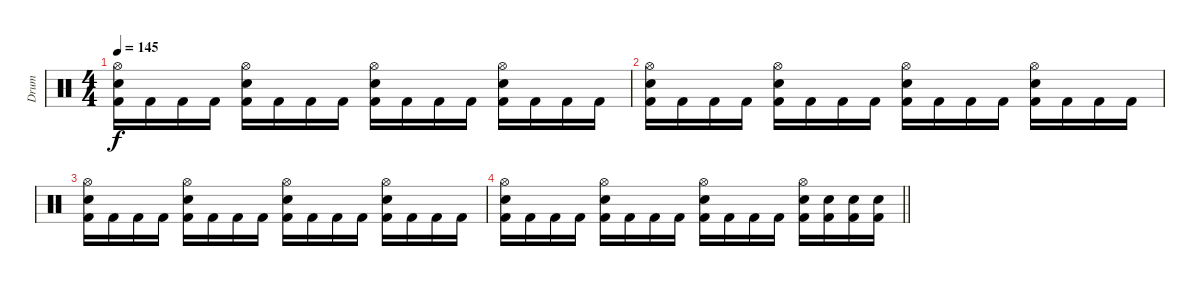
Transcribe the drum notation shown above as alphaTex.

\track ("Drum" "Drum") {instrument percussion}
\staff {score}
\articulation defaults
\ts (4 4)
\tempo 145
\clef neutral
\ks c
("Hi-Hat (open)" "Electric Snare (hit)" "Kick (hit) 2").16{dy f} "Kick (hit) 2".16 "Kick (hit) 2".16 "Kick (hit) 2".16 ("Hi-Hat (open)" "Electric Snare (hit)" "Kick (hit) 2").16 "Kick (hit) 2".16 "Kick (hit) 2".16 "Kick (hit) 2".16 ("Hi-Hat (open)" "Electric Snare (hit)" "Kick (hit) 2").16 "Kick (hit) 2".16 "Kick (hit) 2".16 "Kick (hit) 2".16 ("Hi-Hat (open)" "Electric Snare (hit)" "Kick (hit) 2").16 "Kick (hit) 2".16 "Kick (hit) 2".16 "Kick (hit) 2".16 |
("Hi-Hat (open)" "Electric Snare (hit)" "Kick (hit) 2").16 "Kick (hit) 2".16 "Kick (hit) 2".16 "Kick (hit) 2".16 ("Hi-Hat (open)" "Electric Snare (hit)" "Kick (hit) 2").16 "Kick (hit) 2".16 "Kick (hit) 2".16 "Kick (hit) 2".16 ("Hi-Hat (open)" "Electric Snare (hit)" "Kick (hit) 2").16 "Kick (hit) 2".16 "Kick (hit) 2".16 "Kick (hit) 2".16 ("Hi-Hat (open)" "Electric Snare (hit)" "Kick (hit) 2").16 "Kick (hit) 2".16 "Kick (hit) 2".16 "Kick (hit) 2".16 |
("Hi-Hat (open)" "Electric Snare (hit)" "Kick (hit) 2").16 "Kick (hit) 2".16 "Kick (hit) 2".16 "Kick (hit) 2".16 ("Hi-Hat (open)" "Electric Snare (hit)" "Kick (hit) 2").16 "Kick (hit) 2".16 "Kick (hit) 2".16 "Kick (hit) 2".16 ("Hi-Hat (open)" "Electric Snare (hit)" "Kick (hit) 2").16 "Kick (hit) 2".16 "Kick (hit) 2".16 "Kick (hit) 2".16 ("Hi-Hat (open)" "Electric Snare (hit)" "Kick (hit) 2").16 "Kick (hit) 2".16 "Kick (hit) 2".16 "Kick (hit) 2".16 |
\barLineRight lightlight
("Hi-Hat (open)" "Electric Snare (hit)" "Kick (hit) 2").16 "Kick (hit) 2".16 "Kick (hit) 2".16 "Kick (hit) 2".16 ("Hi-Hat (open)" "Electric Snare (hit)" "Kick (hit) 2").16 "Kick (hit) 2".16 "Kick (hit) 2".16 "Kick (hit) 2".16 ("Hi-Hat (open)" "Electric Snare (hit)" "Kick (hit) 2").16 "Kick (hit) 2".16 "Kick (hit) 2".16 "Kick (hit) 2".16 ("Hi-Hat (open)" "Electric Snare (hit)" "Kick (hit) 2").16 ("Electric Snare (hit)" "Kick (hit) 2").16 ("Electric Snare (hit)" "Kick (hit) 2").16 ("Electric Snare (hit)" "Kick (hit) 2").16
